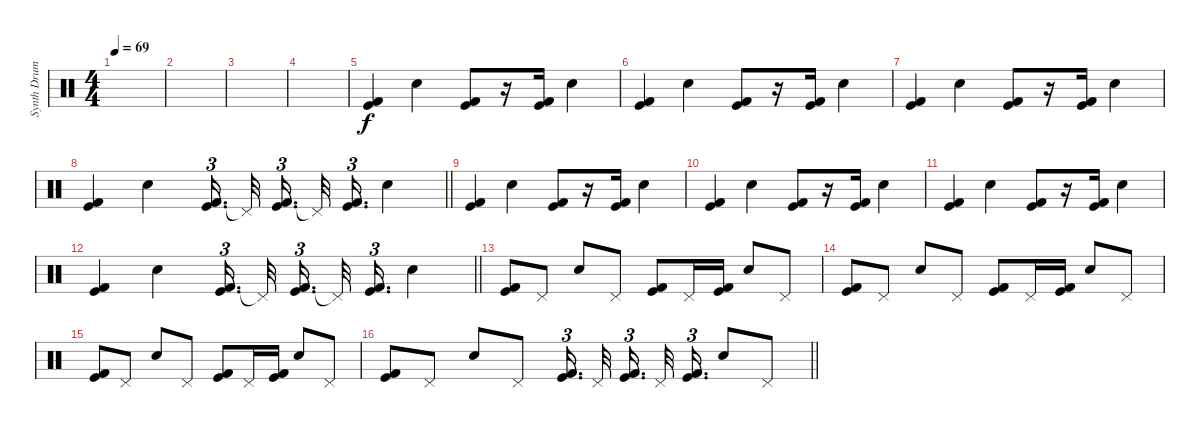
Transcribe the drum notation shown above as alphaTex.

\track ("Synth Drums" "Synth Drum") {instrument percussion}
\staff {score}
\articulation defaults
\ts (4 4)
\tempo 69
\clef neutral
\ks c
|
|
\ks aminor
|
|
("Kick (hit) 2" "Kick (hit)").4 "Electric Snare (hit)".4 ("Kick (hit) 2" "Kick (hit)").8 r.16 ("Kick (hit) 2" "Kick (hit)").16 "Electric Snare (hit)".4 |
("Kick (hit) 2" "Kick (hit)").4 "Electric Snare (hit)".4 ("Kick (hit) 2" "Kick (hit)").8 r.16 ("Kick (hit) 2" "Kick (hit)").16 "Electric Snare (hit)".4 |
("Kick (hit) 2" "Kick (hit)").4 "Electric Snare (hit)".4 ("Kick (hit) 2" "Kick (hit)").8 r.16 ("Kick (hit) 2" "Kick (hit)").16 "Electric Snare (hit)".4 |
\barLineRight lightlight
("Kick (hit) 2" "Kick (hit)").4 "Electric Snare (hit)".4 ("Kick (hit) 2" "Kick (hit)").16{d tu (3 2) beam splitsecondary} "Pedal Hi-Hat (hit)"{t}.32{beam splitsecondary} ("Kick (hit) 2" "Kick (hit)").16{d tu (3 2) beam splitsecondary} "Pedal Hi-Hat (hit)"{t}.32 ("Kick (hit) 2" "Kick (hit)").16{d tu (3 2)} "Electric Snare (hit)".4 |
("Kick (hit) 2" "Kick (hit)").4 "Electric Snare (hit)".4 ("Kick (hit) 2" "Kick (hit)").8 r.16 ("Kick (hit) 2" "Kick (hit)").16 "Electric Snare (hit)".4 |
("Kick (hit) 2" "Kick (hit)").4 "Electric Snare (hit)".4 ("Kick (hit) 2" "Kick (hit)").8 r.16 ("Kick (hit) 2" "Kick (hit)").16 "Electric Snare (hit)".4 |
("Kick (hit) 2" "Kick (hit)").4 "Electric Snare (hit)".4 ("Kick (hit) 2" "Kick (hit)").8 r.16 ("Kick (hit) 2" "Kick (hit)").16 "Electric Snare (hit)".4 |
\barLineRight lightlight
("Kick (hit) 2" "Kick (hit)").4 "Electric Snare (hit)".4 ("Kick (hit) 2" "Kick (hit)").16{d tu (3 2) beam splitsecondary} "Pedal Hi-Hat (hit)"{t}.32{beam splitsecondary} ("Kick (hit) 2" "Kick (hit)").16{d tu (3 2) beam splitsecondary} "Pedal Hi-Hat (hit)"{t}.32 ("Kick (hit) 2" "Kick (hit)").16{d tu (3 2)} "Electric Snare (hit)".4 |
("Kick (hit) 2" "Kick (hit)").8 "Pedal Hi-Hat (hit)".8 "Electric Snare (hit)".8 "Pedal Hi-Hat (hit)".8 ("Kick (hit) 2" "Kick (hit)").8 "Pedal Hi-Hat (hit)".16 ("Kick (hit) 2" "Kick (hit)").16 "Electric Snare (hit)".8 "Pedal Hi-Hat (hit)".8 |
("Kick (hit) 2" "Kick (hit)").8 "Pedal Hi-Hat (hit)".8 "Electric Snare (hit)".8 "Pedal Hi-Hat (hit)".8 ("Kick (hit) 2" "Kick (hit)").8 "Pedal Hi-Hat (hit)".16 ("Kick (hit) 2" "Kick (hit)").16 "Electric Snare (hit)".8 "Pedal Hi-Hat (hit)".8 |
("Kick (hit) 2" "Kick (hit)").8 "Pedal Hi-Hat (hit)".8 "Electric Snare (hit)".8 "Pedal Hi-Hat (hit)".8 ("Kick (hit) 2" "Kick (hit)").8 "Pedal Hi-Hat (hit)".16 ("Kick (hit) 2" "Kick (hit)").16 "Electric Snare (hit)".8 "Pedal Hi-Hat (hit)".8 |
\barLineRight lightlight
("Kick (hit) 2" "Kick (hit)").8 "Pedal Hi-Hat (hit)".8 "Electric Snare (hit)".8 "Pedal Hi-Hat (hit)".8 ("Kick (hit) 2" "Kick (hit)").16{d tu (3 2) beam splitsecondary} "Pedal Hi-Hat (hit)".32{beam splitsecondary} ("Kick (hit) 2" "Kick (hit)").16{d tu (3 2) beam splitsecondary} "Pedal Hi-Hat (hit)".32 ("Kick (hit) 2" "Kick (hit)").16{d tu (3 2)} "Electric Snare (hit)".8 "Pedal Hi-Hat (hit)".8
